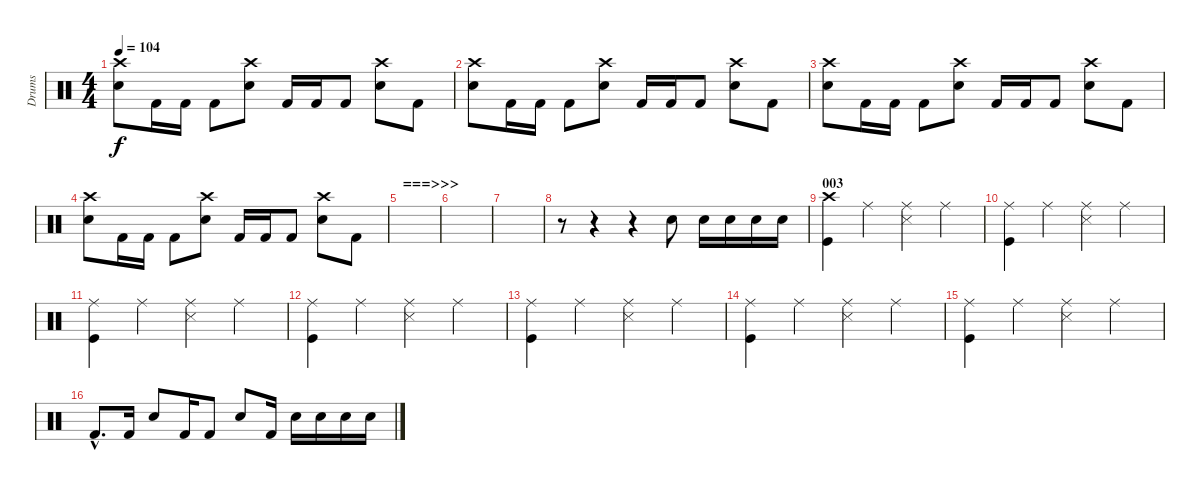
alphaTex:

\track ("Drums" "Drums") {instrument percussion}
\staff {score}
\articulation defaults
\ts (4 4)
\tempo 104
\clef neutral
\ks c
("Crash high (hit)" "Electric Snare (hit)").8{dy f} "Kick (hit) 2".16 "Kick (hit) 2".16 "Kick (hit) 2".8 ("Crash high (hit)" "Electric Snare (hit)").8 "Kick (hit) 2".16 "Kick (hit) 2".16 "Kick (hit) 2".8 ("Crash high (hit)" "Electric Snare (hit)").8 "Kick (hit) 2".8 |
("Crash high (hit)" "Electric Snare (hit)").8 "Kick (hit) 2".16 "Kick (hit) 2".16 "Kick (hit) 2".8 ("Crash high (hit)" "Electric Snare (hit)").8 "Kick (hit) 2".16 "Kick (hit) 2".16 "Kick (hit) 2".8 ("Crash high (hit)" "Electric Snare (hit)").8 "Kick (hit) 2".8 |
("Crash high (hit)" "Electric Snare (hit)").8 "Kick (hit) 2".16 "Kick (hit) 2".16 "Kick (hit) 2".8 ("Crash high (hit)" "Electric Snare (hit)").8 "Kick (hit) 2".16 "Kick (hit) 2".16 "Kick (hit) 2".8 ("Crash high (hit)" "Electric Snare (hit)").8 "Kick (hit) 2".8 |
("Crash high (hit)" "Electric Snare (hit)").8 "Kick (hit) 2".16 "Kick (hit) 2".16 "Kick (hit) 2".8 ("Crash high (hit)" "Electric Snare (hit)").8 "Kick (hit) 2".16 "Kick (hit) 2".16 "Kick (hit) 2".8 ("Crash high (hit)" "Electric Snare (hit)").8 "Kick (hit) 2".8 |
\section ("" "===>>>")
|
|
|
r.8 r.4 r.4 "Electric Snare (hit)".8 "Electric Snare (hit)".16 "Electric Snare (hit)".16 "Electric Snare (hit)".16 "Electric Snare (hit)".16 |
\section ("" "003")
("Kick (hit)" "Crash high (hit)").4 "Ride (middle)".4 ("Snare (side stick) 3" "Ride (middle)").4 "Ride (middle)".4 |
("Kick (hit)" "Ride (middle)").4 "Ride (middle)".4 ("Snare (side stick) 3" "Ride (middle)").4 "Ride (middle)".4 |
("Kick (hit)" "Ride (middle)").4 "Ride (middle)".4 ("Snare (side stick) 3" "Ride (middle)").4 "Ride (middle)".4 |
("Kick (hit)" "Ride (middle)").4 "Ride (middle)".4 ("Snare (side stick) 3" "Ride (middle)").4 "Ride (middle)".4 |
("Kick (hit)" "Ride (middle)").4 "Ride (middle)".4 ("Snare (side stick) 3" "Ride (middle)").4 "Ride (middle)".4 |
("Kick (hit)" "Ride (middle)").4 "Ride (middle)".4 ("Snare (side stick) 3" "Ride (middle)").4 "Ride (middle)".4 |
("Kick (hit)" "Ride (middle)").4 "Ride (middle)".4 ("Snare (side stick) 3" "Ride (middle)").4 "Ride (middle)".4 |
"Kick (hit) 2"{hac}.8{d} "Kick (hit) 2".16 "Electric Snare (hit)".8 "Kick (hit) 2".16 "Kick (hit) 2".8 "Electric Snare (hit)".8 "Kick (hit) 2".16 "Electric Snare (hit)".16 "Electric Snare (hit)".16 "Electric Snare (hit)".16 "Electric Snare (hit)".16
